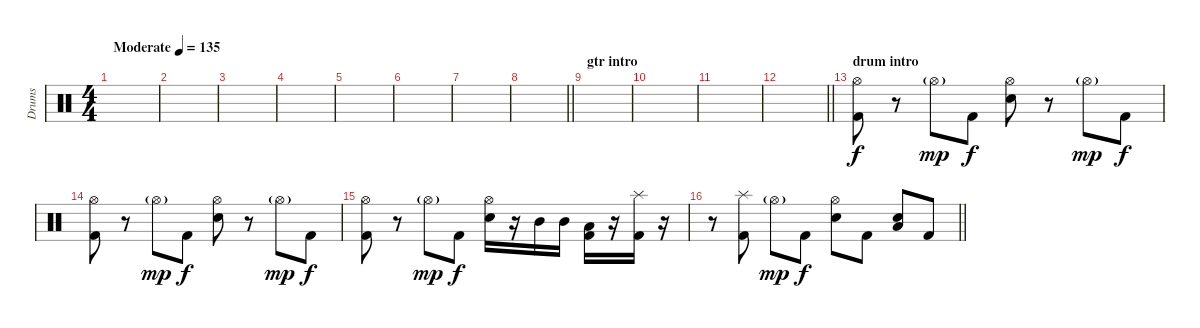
\track ("Drums" "Drums") {instrument percussion}
\staff {score}
\articulation defaults
\ts (4 4)
\tempo (135 "Moderate")
\clef neutral
\ks c
|
|
|
|
|
|
|
\barLineRight lightlight
|
\section ("" "gtr intro")
|
|
|
\barLineRight lightlight
|
\section ("" "drum intro")
("Kick (hit) 2" "Hi-Hat (open)").8 r.8 "Hi-Hat (open)"{g}.8{dy mp} "Kick (hit) 2".8{dy f} ("Hi-Hat (open)" "Electric Snare (hit)").8 r.8 "Hi-Hat (open)"{g}.8{dy mp} "Kick (hit) 2".8{dy f} |
("Kick (hit) 2" "Hi-Hat (open)").8 r.8 "Hi-Hat (open)"{g}.8{dy mp} "Kick (hit) 2".8{dy f} ("Hi-Hat (open)" "Electric Snare (hit)").8 r.8 "Hi-Hat (open)"{g}.8{dy mp} "Kick (hit) 2".8{dy f} |
("Kick (hit) 2" "Hi-Hat (open)").8 r.8 "Hi-Hat (open)"{g}.8{dy mp} "Kick (hit) 2".8{dy f} ("Hi-Hat (open)" "Electric Snare (hit)").16 r.16 "Mid Tom (hit)".16 "Mid Tom (hit)".16 ("Kick (hit) 2" "Low Tom (hit)").16 r.16 ("Kick (hit) 2" "Splash (hit)").16 r.16 |
\barLineRight lightlight
r.8 ("Kick (hit) 2" "Splash (hit)").8 "Hi-Hat (open)"{g}.8{dy mp} "Kick (hit) 2".8{dy f} ("Hi-Hat (open)" "Electric Snare (hit)").8 "Kick (hit) 2".8 ("Electric Snare (hit)" "Low Tom (hit)").8 "Kick (hit) 2".8
